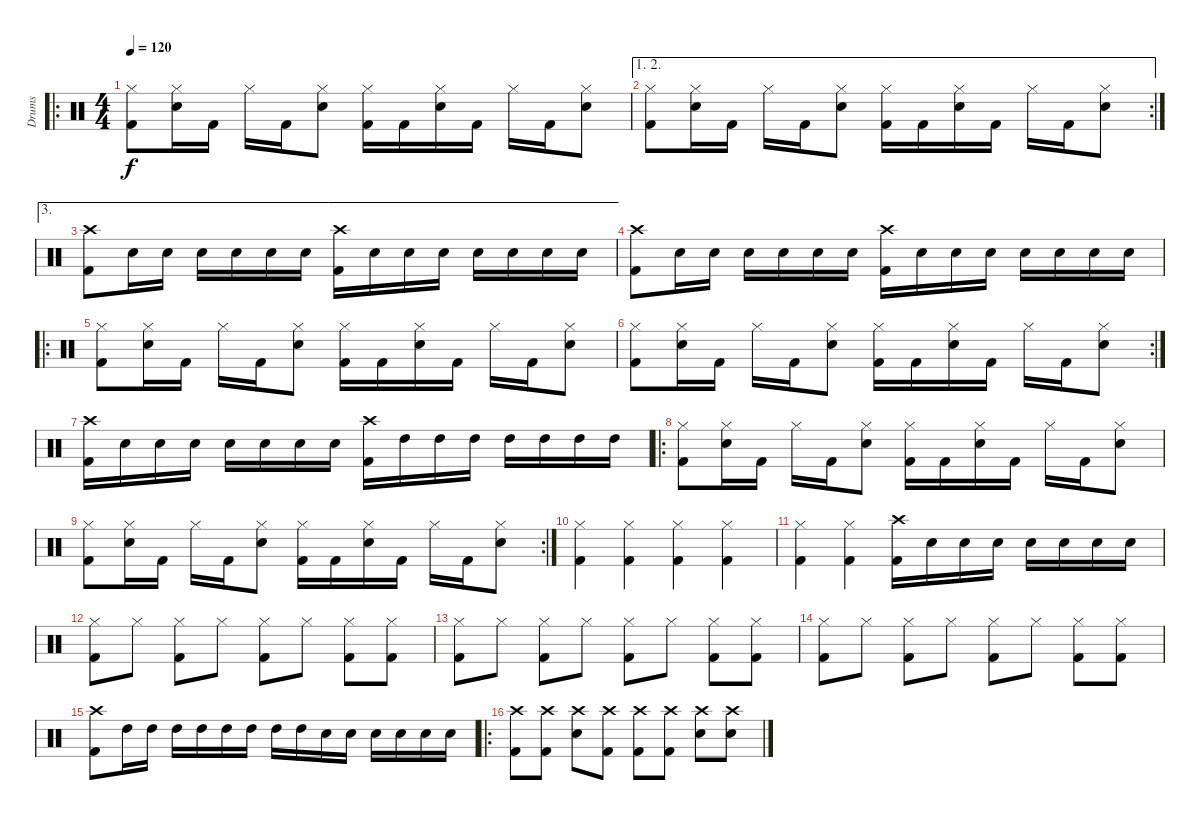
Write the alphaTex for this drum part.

\track ("Drums" "Drums") {instrument percussion}
\staff {score}
\articulation defaults
\ro
\ts (4 4)
\tempo 120
\clef neutral
\ks c
("Hi-Hat (closed)" "Kick (hit) 2").8{dy f} ("Hi-Hat (closed)" "Snare (hit) 2").16 "Kick (hit) 2".16 "Hi-Hat (closed)".16 "Kick (hit) 2".16 ("Hi-Hat (closed)" "Snare (hit) 2").8 ("Hi-Hat (closed)" "Kick (hit) 2").16 "Kick (hit) 2".16 ("Hi-Hat (closed)" "Snare (hit) 2").16 "Kick (hit) 2".16 "Hi-Hat (closed)".16 "Kick (hit) 2".16 ("Hi-Hat (closed)" "Snare (hit) 2").8 |
\ae (1 2)
\rc 2
("Hi-Hat (closed)" "Kick (hit) 2").8 ("Hi-Hat (closed)" "Snare (hit) 2").16 "Kick (hit) 2".16 "Hi-Hat (closed)".16 "Kick (hit) 2".16 ("Hi-Hat (closed)" "Snare (hit) 2").8 ("Hi-Hat (closed)" "Kick (hit) 2").16 "Kick (hit) 2".16 ("Hi-Hat (closed)" "Snare (hit) 2").16 "Kick (hit) 2".16 "Hi-Hat (closed)".16 "Kick (hit) 2".16 ("Hi-Hat (closed)" "Snare (hit) 2").8 |
\ae 3
("Crash high (hit)" "Kick (hit) 2").8 "Snare (hit) 2".16 "Snare (hit) 2".16 "Snare (hit) 2".16 "Snare (hit) 2".16 "Snare (hit) 2".16 "Snare (hit) 2".16 ("Crash high (hit)" "Kick (hit) 2").16 "Snare (hit) 2".16 "Snare (hit) 2".16 "Snare (hit) 2".16 "Snare (hit) 2".16 "Snare (hit) 2".16 "Snare (hit) 2".16 "Snare (hit) 2".16 |
("Crash high (hit)" "Kick (hit) 2").8 "Snare (hit) 2".16 "Snare (hit) 2".16 "Snare (hit) 2".16 "Snare (hit) 2".16 "Snare (hit) 2".16 "Snare (hit) 2".16 ("Crash high (hit)" "Kick (hit) 2").16 "Snare (hit) 2".16 "Snare (hit) 2".16 "Snare (hit) 2".16 "Snare (hit) 2".16 "Snare (hit) 2".16 "Snare (hit) 2".16 "Snare (hit) 2".16 |
\ro
("Hi-Hat (closed)" "Kick (hit) 2").8 ("Hi-Hat (closed)" "Snare (hit) 2").16 "Kick (hit) 2".16 "Hi-Hat (closed)".16 "Kick (hit) 2".16 ("Hi-Hat (closed)" "Snare (hit) 2").8 ("Hi-Hat (closed)" "Kick (hit) 2").16 "Kick (hit) 2".16 ("Hi-Hat (closed)" "Snare (hit) 2").16 "Kick (hit) 2".16 "Hi-Hat (closed)".16 "Kick (hit) 2".16 ("Hi-Hat (closed)" "Snare (hit) 2").8 |
\rc 2
("Hi-Hat (closed)" "Kick (hit) 2").8 ("Hi-Hat (closed)" "Snare (hit) 2").16 "Kick (hit) 2".16 "Hi-Hat (closed)".16 "Kick (hit) 2".16 ("Hi-Hat (closed)" "Snare (hit) 2").8 ("Hi-Hat (closed)" "Kick (hit) 2").16 "Kick (hit) 2".16 ("Hi-Hat (closed)" "Snare (hit) 2").16 "Kick (hit) 2".16 "Hi-Hat (closed)".16 "Kick (hit) 2".16 ("Hi-Hat (closed)" "Snare (hit) 2").8 |
("Crash high (hit)" "Kick (hit) 2").16 "Snare (hit) 2".16 "Snare (hit) 2".16 "Snare (hit) 2".16 "Snare (hit) 2".16 "Snare (hit) 2".16 "Snare (hit) 2".16 "Snare (hit) 2".16 ("Crash high (hit)" "Kick (hit) 2").16 "High Tom (hit)".16 "High Tom (hit)".16 "High Tom (hit)".16 "High Tom (hit)".16 "High Tom (hit)".16 "High Tom (hit)".16 "High Tom (hit)".16 |
\ro
("Hi-Hat (closed)" "Kick (hit) 2").8 ("Hi-Hat (closed)" "Snare (hit) 2").16 "Kick (hit) 2".16 "Hi-Hat (closed)".16 "Kick (hit) 2".16 ("Hi-Hat (closed)" "Snare (hit) 2").8 ("Hi-Hat (closed)" "Kick (hit) 2").16 "Kick (hit) 2".16 ("Hi-Hat (closed)" "Snare (hit) 2").16 "Kick (hit) 2".16 "Hi-Hat (closed)".16 "Kick (hit) 2".16 ("Hi-Hat (closed)" "Snare (hit) 2").8 |
\rc 2
("Hi-Hat (closed)" "Kick (hit) 2").8 ("Hi-Hat (closed)" "Snare (hit) 2").16 "Kick (hit) 2".16 "Hi-Hat (closed)".16 "Kick (hit) 2".16 ("Hi-Hat (closed)" "Snare (hit) 2").8 ("Hi-Hat (closed)" "Kick (hit) 2").16 "Kick (hit) 2".16 ("Hi-Hat (closed)" "Snare (hit) 2").16 "Kick (hit) 2".16 "Hi-Hat (closed)".16 "Kick (hit) 2".16 ("Hi-Hat (closed)" "Snare (hit) 2").8 |
("Hi-Hat (closed)" "Kick (hit) 2").4 ("Hi-Hat (closed)" "Kick (hit) 2").4 ("Hi-Hat (closed)" "Kick (hit) 2").4 ("Hi-Hat (closed)" "Kick (hit) 2").4 |
("Hi-Hat (closed)" "Kick (hit) 2").4 ("Hi-Hat (closed)" "Kick (hit) 2").4 ("Crash high (hit)" "Kick (hit) 2").16 "Snare (hit) 2".16 "Snare (hit) 2".16 "Snare (hit) 2".16 "Snare (hit) 2".16 "Snare (hit) 2".16 "Snare (hit) 2".16 "Snare (hit) 2".16 |
("Hi-Hat (closed)" "Kick (hit) 2").8 "Hi-Hat (closed)".8 ("Hi-Hat (closed)" "Kick (hit) 2").8 "Hi-Hat (closed)".8 ("Hi-Hat (closed)" "Kick (hit) 2").8 "Hi-Hat (closed)".8 ("Hi-Hat (closed)" "Kick (hit) 2").8 ("Hi-Hat (closed)" "Kick (hit) 2").8 |
("Hi-Hat (closed)" "Kick (hit) 2").8 "Hi-Hat (closed)".8 ("Hi-Hat (closed)" "Kick (hit) 2").8 "Hi-Hat (closed)".8 ("Hi-Hat (closed)" "Kick (hit) 2").8 "Hi-Hat (closed)".8 ("Hi-Hat (closed)" "Kick (hit) 2").8 ("Hi-Hat (closed)" "Kick (hit) 2").8 |
("Hi-Hat (closed)" "Kick (hit) 2").8 "Hi-Hat (closed)".8 ("Hi-Hat (closed)" "Kick (hit) 2").8 "Hi-Hat (closed)".8 ("Hi-Hat (closed)" "Kick (hit) 2").8 "Hi-Hat (closed)".8 ("Hi-Hat (closed)" "Kick (hit) 2").8 ("Hi-Hat (closed)" "Kick (hit) 2").8 |
("Crash high (hit)" "Kick (hit) 2").8 "High Tom (hit)".16 "High Tom (hit)".16 "High Tom (hit)".16 "High Tom (hit)".16 "High Tom (hit)".16 "High Tom (hit)".16 "High Tom (hit)".16 "High Tom (hit)".16 "Snare (hit) 2".16 "Snare (hit) 2".16 "Snare (hit) 2".16 "Snare (hit) 2".16 "Snare (hit) 2".16 "Snare (hit) 2".16 |
\ro
("Crash high (hit)" "Kick (hit) 2").8 ("Crash high (hit)" "Kick (hit) 2").8 ("Crash high (hit)" "Snare (hit) 2").8 ("Crash high (hit)" "Kick (hit) 2").8 ("Crash high (hit)" "Kick (hit) 2").8 ("Crash high (hit)" "Kick (hit) 2").8 ("Crash high (hit)" "Snare (hit) 2").8 ("Crash high (hit)" "Snare (hit) 2").8
